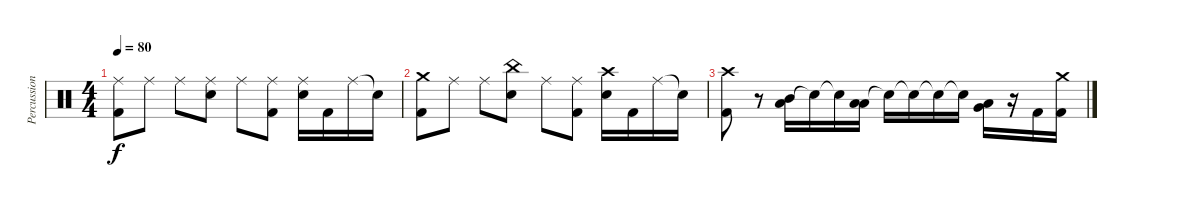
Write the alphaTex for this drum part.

\track ("Percussion" "Percussion") {instrument percussion}
\staff {score}
\articulation defaults
\ts (4 4)
\tempo 80
\clef neutral
\ks c
("Kick (hit) 2" "Ride (middle)").8{dy f} "Ride (middle)".8 "Ride (middle)".8 ("Electric Snare (hit)" "Ride (middle)").8 "Ride (middle)".8 ("Kick (hit) 2" "Ride (middle)").8 ("Electric Snare (hit)" "Ride (middle)").16 "Kick (hit) 2".16 "Ride (middle)".16 "Snare (hit)"{t}.16 |
("Kick (hit) 2" "Crash medium (hit)").8 "Ride (middle)".8 "Ride (middle)".8 ("Electric Snare (hit)" "China (hit)").8 "Ride (middle)".8 ("Kick (hit) 2" "Ride (middle)").8 ("Electric Snare (hit)" "Crash high (hit)").16 "Kick (hit) 2".16 "Ride (middle)".16 "Snare (hit)"{t}.16 |
("Kick (hit) 2" "Crash high (hit)").8 r.8 ("Low Floor Tom (hit)" "Mid Tom (hit)").16{bd 480} "Snare (hit)"{t}.16 "Snare (hit)"{t}.16 ("Low Floor Tom (hit)" "Low Tom (hit)").16{bd 480} "Snare (hit)"{t}.16 "Snare (hit)"{t}.16 "Snare (hit)"{t}.16 "Snare (hit)"{t}.16 ("Low Floor Tom (hit)" "Very Low Tom (hit)").16{bd 480} r.16 "Kick (hit) 2".16 ("Kick (hit) 2" "Crash medium (hit)").16
